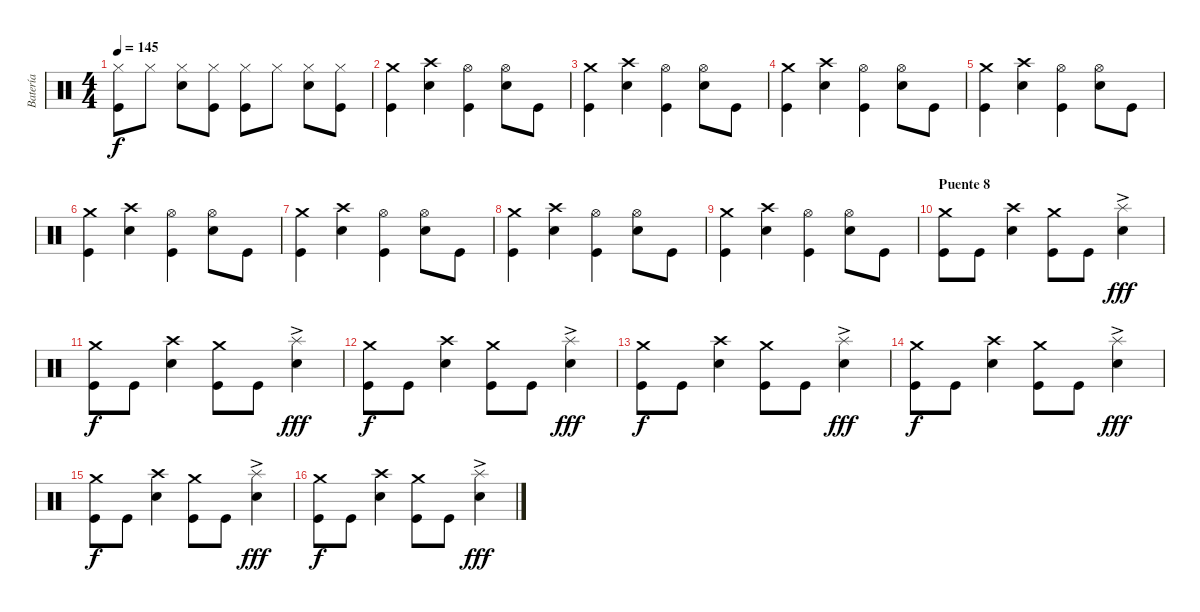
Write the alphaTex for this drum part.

\track ("Batería" "Batería") {instrument percussion}
\staff {score}
\articulation defaults
\ts (4 4)
\tempo 145
\clef neutral
\ks c
("Kick (hit)" "Hi-Hat (closed)").8{dy f} "Hi-Hat (closed)".8 ("Electric Snare (hit)" "Hi-Hat (closed)").8 ("Kick (hit)" "Hi-Hat (closed)").8 ("Kick (hit)" "Hi-Hat (closed)").8 "Hi-Hat (closed)".8 ("Electric Snare (hit)" "Hi-Hat (closed)").8 ("Kick (hit)" "Hi-Hat (closed)").8 |
("Kick (hit)" "Crash medium (hit)").4 ("Electric Snare (hit)" "Crash high (hit)").4 ("Kick (hit)" "Hi-Hat (open)").4 ("Electric Snare (hit)" "Hi-Hat (open)").8 "Kick (hit)".8 |
("Kick (hit)" "Crash medium (hit)").4 ("Electric Snare (hit)" "Crash high (hit)").4 ("Kick (hit)" "Hi-Hat (open)").4 ("Electric Snare (hit)" "Hi-Hat (open)").8 "Kick (hit)".8 |
("Kick (hit)" "Crash medium (hit)").4 ("Electric Snare (hit)" "Crash high (hit)").4 ("Kick (hit)" "Hi-Hat (open)").4 ("Electric Snare (hit)" "Hi-Hat (open)").8 "Kick (hit)".8 |
("Kick (hit)" "Crash medium (hit)").4 ("Electric Snare (hit)" "Crash high (hit)").4 ("Kick (hit)" "Hi-Hat (open)").4 ("Electric Snare (hit)" "Hi-Hat (open)").8 "Kick (hit)".8 |
("Kick (hit)" "Crash medium (hit)").4 ("Electric Snare (hit)" "Crash high (hit)").4 ("Kick (hit)" "Hi-Hat (open)").4 ("Electric Snare (hit)" "Hi-Hat (open)").8 "Kick (hit)".8 |
("Kick (hit)" "Crash medium (hit)").4 ("Electric Snare (hit)" "Crash high (hit)").4 ("Kick (hit)" "Hi-Hat (open)").4 ("Electric Snare (hit)" "Hi-Hat (open)").8 "Kick (hit)".8 |
("Kick (hit)" "Crash medium (hit)").4 ("Electric Snare (hit)" "Crash high (hit)").4 ("Kick (hit)" "Hi-Hat (open)").4 ("Electric Snare (hit)" "Hi-Hat (open)").8 "Kick (hit)".8 |
("Kick (hit)" "Crash medium (hit)").4 ("Electric Snare (hit)" "Crash high (hit)").4 ("Kick (hit)" "Hi-Hat (open)").4 ("Electric Snare (hit)" "Hi-Hat (open)").8 "Kick (hit)".8 |
\section ("" "Puente 8")
("Kick (hit)" "Crash medium (hit)").8 "Kick (hit)".8 ("Electric Snare (hit)" "Crash high (hit)").4 ("Kick (hit)" "Crash medium (hit)").8 "Kick (hit)".8 ("Electric Snare (hit)" "Splash (hit)"{ac}).4{dy fff} |
("Kick (hit)" "Crash medium (hit)").8{dy f} "Kick (hit)".8 ("Electric Snare (hit)" "Crash high (hit)").4 ("Kick (hit)" "Crash medium (hit)").8 "Kick (hit)".8 ("Electric Snare (hit)" "Splash (hit)"{ac}).4{dy fff} |
("Kick (hit)" "Crash medium (hit)").8{dy f} "Kick (hit)".8 ("Electric Snare (hit)" "Crash high (hit)").4 ("Kick (hit)" "Crash medium (hit)").8 "Kick (hit)".8 ("Electric Snare (hit)" "Splash (hit)"{ac}).4{dy fff} |
("Kick (hit)" "Crash medium (hit)").8{dy f} "Kick (hit)".8 ("Electric Snare (hit)" "Crash high (hit)").4 ("Kick (hit)" "Crash medium (hit)").8 "Kick (hit)".8 ("Electric Snare (hit)" "Splash (hit)"{ac}).4{dy fff} |
("Kick (hit)" "Crash medium (hit)").8{dy f} "Kick (hit)".8 ("Electric Snare (hit)" "Crash high (hit)").4 ("Kick (hit)" "Crash medium (hit)").8 "Kick (hit)".8 ("Electric Snare (hit)" "Splash (hit)"{ac}).4{dy fff} |
("Kick (hit)" "Crash medium (hit)").8{dy f} "Kick (hit)".8 ("Electric Snare (hit)" "Crash high (hit)").4 ("Kick (hit)" "Crash medium (hit)").8 "Kick (hit)".8 ("Electric Snare (hit)" "Splash (hit)"{ac}).4{dy fff} |
("Kick (hit)" "Crash medium (hit)").8{dy f} "Kick (hit)".8 ("Electric Snare (hit)" "Crash high (hit)").4 ("Kick (hit)" "Crash medium (hit)").8 "Kick (hit)".8 ("Electric Snare (hit)" "Splash (hit)"{ac}).4{dy fff}
